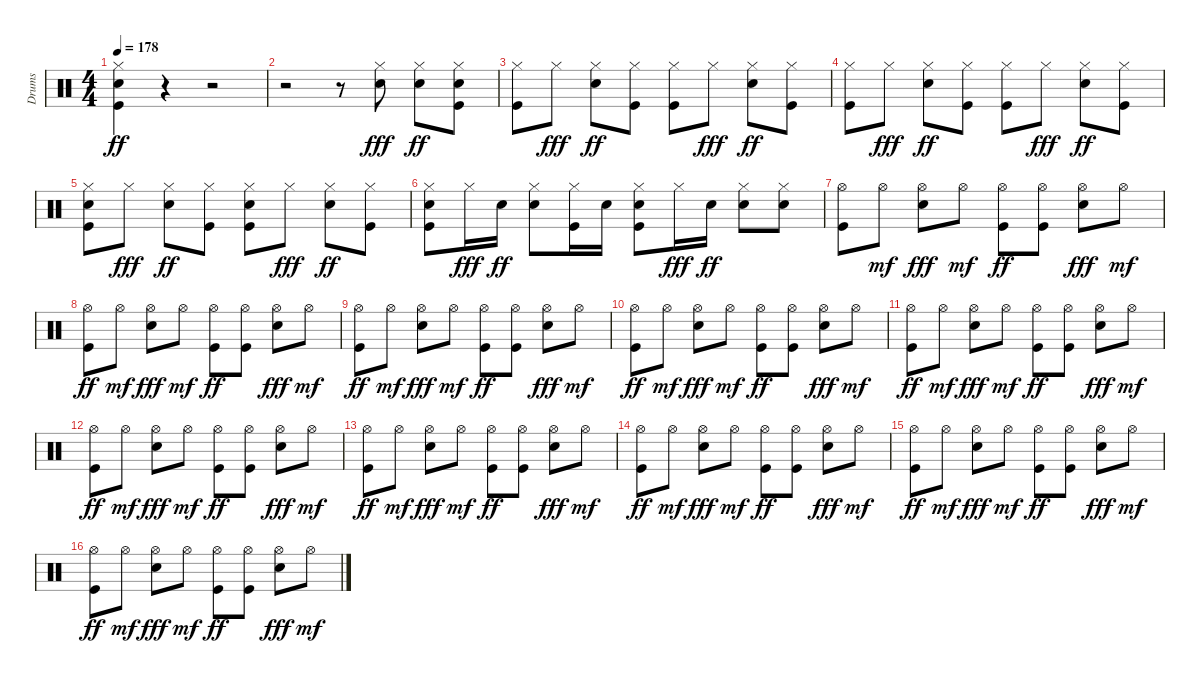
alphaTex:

\track ("Drums" "Drums") {instrument percussion}
\staff {score}
\articulation defaults
\ts (4 4)
\tempo 178
\clef neutral
\ks c
("Hi-Hat (closed)" "Snare (hit) 2" "Kick (hit)").4{dy ff} r.4 r.2 |
r.2 r.8 ("Hi-Hat (closed)" "Snare (hit) 2").8{dy fff} ("Hi-Hat (closed)" "Snare (hit) 2").8{dy ff} ("Hi-Hat (closed)" "Snare (hit) 2" "Kick (hit)").8 |
("Hi-Hat (closed)" "Kick (hit)").8 "Hi-Hat (closed)".8{dy fff} ("Hi-Hat (closed)" "Snare (hit) 2").8{dy ff} ("Hi-Hat (closed)" "Kick (hit)").8 ("Hi-Hat (closed)" "Kick (hit)").8 "Hi-Hat (closed)".8{dy fff} ("Hi-Hat (closed)" "Snare (hit) 2").8{dy ff} ("Hi-Hat (closed)" "Kick (hit)").8 |
("Hi-Hat (closed)" "Kick (hit)").8 "Hi-Hat (closed)".8{dy fff} ("Hi-Hat (closed)" "Snare (hit) 2").8{dy ff} ("Hi-Hat (closed)" "Kick (hit)").8 ("Hi-Hat (closed)" "Kick (hit)").8 "Hi-Hat (closed)".8{dy fff} ("Hi-Hat (closed)" "Snare (hit) 2").8{dy ff} ("Hi-Hat (closed)" "Kick (hit)").8 |
("Hi-Hat (closed)" "Snare (hit) 2" "Kick (hit)").8 "Hi-Hat (closed)".8{dy fff} ("Hi-Hat (closed)" "Snare (hit) 2").8{dy ff} ("Hi-Hat (closed)" "Kick (hit)").8 ("Hi-Hat (closed)" "Snare (hit) 2" "Kick (hit)").8 "Hi-Hat (closed)".8{dy fff} ("Hi-Hat (closed)" "Snare (hit) 2").8{dy ff} ("Hi-Hat (closed)" "Kick (hit)").8 |
("Hi-Hat (closed)" "Snare (hit) 2" "Kick (hit)").8 "Hi-Hat (closed)".16{dy fff} "Snare (hit) 2".16{dy ff} ("Hi-Hat (closed)" "Snare (hit) 2").8 ("Hi-Hat (closed)" "Kick (hit)").16 "Snare (hit) 2".16 ("Hi-Hat (closed)" "Snare (hit) 2" "Kick (hit)").8 "Hi-Hat (closed)".16{dy fff} "Snare (hit) 2".16{dy ff} ("Hi-Hat (closed)" "Snare (hit) 2").8 ("Hi-Hat (closed)" "Snare (hit) 2").8 |
("Hi-Hat (open)" "Kick (hit)").8 "Hi-Hat (open)".8{dy mf} ("Hi-Hat (open)" "Snare (hit) 2").8{dy fff} "Hi-Hat (open)".8{dy mf} ("Hi-Hat (open)" "Kick (hit)").8{dy ff} ("Hi-Hat (open)" "Kick (hit)").8 ("Hi-Hat (open)" "Snare (hit) 2").8{dy fff} "Hi-Hat (open)".8{dy mf} |
("Hi-Hat (open)" "Kick (hit)").8{dy ff} "Hi-Hat (open)".8{dy mf} ("Hi-Hat (open)" "Snare (hit) 2").8{dy fff} "Hi-Hat (open)".8{dy mf} ("Hi-Hat (open)" "Kick (hit)").8{dy ff} ("Hi-Hat (open)" "Kick (hit)").8 ("Hi-Hat (open)" "Snare (hit) 2").8{dy fff} "Hi-Hat (open)".8{dy mf} |
("Hi-Hat (open)" "Kick (hit)").8{dy ff} "Hi-Hat (open)".8{dy mf} ("Hi-Hat (open)" "Snare (hit) 2").8{dy fff} "Hi-Hat (open)".8{dy mf} ("Hi-Hat (open)" "Kick (hit)").8{dy ff} ("Hi-Hat (open)" "Kick (hit)").8 ("Hi-Hat (open)" "Snare (hit) 2").8{dy fff} "Hi-Hat (open)".8{dy mf} |
("Hi-Hat (open)" "Kick (hit)").8{dy ff} "Hi-Hat (open)".8{dy mf} ("Hi-Hat (open)" "Snare (hit) 2").8{dy fff} "Hi-Hat (open)".8{dy mf} ("Hi-Hat (open)" "Kick (hit)").8{dy ff} ("Hi-Hat (open)" "Kick (hit)").8 ("Hi-Hat (open)" "Snare (hit) 2").8{dy fff} "Hi-Hat (open)".8{dy mf} |
("Hi-Hat (open)" "Kick (hit)").8{dy ff} "Hi-Hat (open)".8{dy mf} ("Hi-Hat (open)" "Snare (hit) 2").8{dy fff} "Hi-Hat (open)".8{dy mf} ("Hi-Hat (open)" "Kick (hit)").8{dy ff} ("Hi-Hat (open)" "Kick (hit)").8 ("Hi-Hat (open)" "Snare (hit) 2").8{dy fff} "Hi-Hat (open)".8{dy mf} |
("Hi-Hat (open)" "Kick (hit)").8{dy ff} "Hi-Hat (open)".8{dy mf} ("Hi-Hat (open)" "Snare (hit) 2").8{dy fff} "Hi-Hat (open)".8{dy mf} ("Hi-Hat (open)" "Kick (hit)").8{dy ff} ("Hi-Hat (open)" "Kick (hit)").8 ("Hi-Hat (open)" "Snare (hit) 2").8{dy fff} "Hi-Hat (open)".8{dy mf} |
("Hi-Hat (open)" "Kick (hit)").8{dy ff} "Hi-Hat (open)".8{dy mf} ("Hi-Hat (open)" "Snare (hit) 2").8{dy fff} "Hi-Hat (open)".8{dy mf} ("Hi-Hat (open)" "Kick (hit)").8{dy ff} ("Hi-Hat (open)" "Kick (hit)").8 ("Hi-Hat (open)" "Snare (hit) 2").8{dy fff} "Hi-Hat (open)".8{dy mf} |
("Hi-Hat (open)" "Kick (hit)").8{dy ff} "Hi-Hat (open)".8{dy mf} ("Hi-Hat (open)" "Snare (hit) 2").8{dy fff} "Hi-Hat (open)".8{dy mf} ("Hi-Hat (open)" "Kick (hit)").8{dy ff} ("Hi-Hat (open)" "Kick (hit)").8 ("Hi-Hat (open)" "Snare (hit) 2").8{dy fff} "Hi-Hat (open)".8{dy mf} |
("Hi-Hat (open)" "Kick (hit)").8{dy ff} "Hi-Hat (open)".8{dy mf} ("Hi-Hat (open)" "Snare (hit) 2").8{dy fff} "Hi-Hat (open)".8{dy mf} ("Hi-Hat (open)" "Kick (hit)").8{dy ff} ("Hi-Hat (open)" "Kick (hit)").8 ("Hi-Hat (open)" "Snare (hit) 2").8{dy fff} "Hi-Hat (open)".8{dy mf} |
("Hi-Hat (open)" "Kick (hit)").8{dy ff} "Hi-Hat (open)".8{dy mf} ("Hi-Hat (open)" "Snare (hit) 2").8{dy fff} "Hi-Hat (open)".8{dy mf} ("Hi-Hat (open)" "Kick (hit)").8{dy ff} ("Hi-Hat (open)" "Kick (hit)").8 ("Hi-Hat (open)" "Snare (hit) 2").8{dy fff} "Hi-Hat (open)".8{dy mf}
